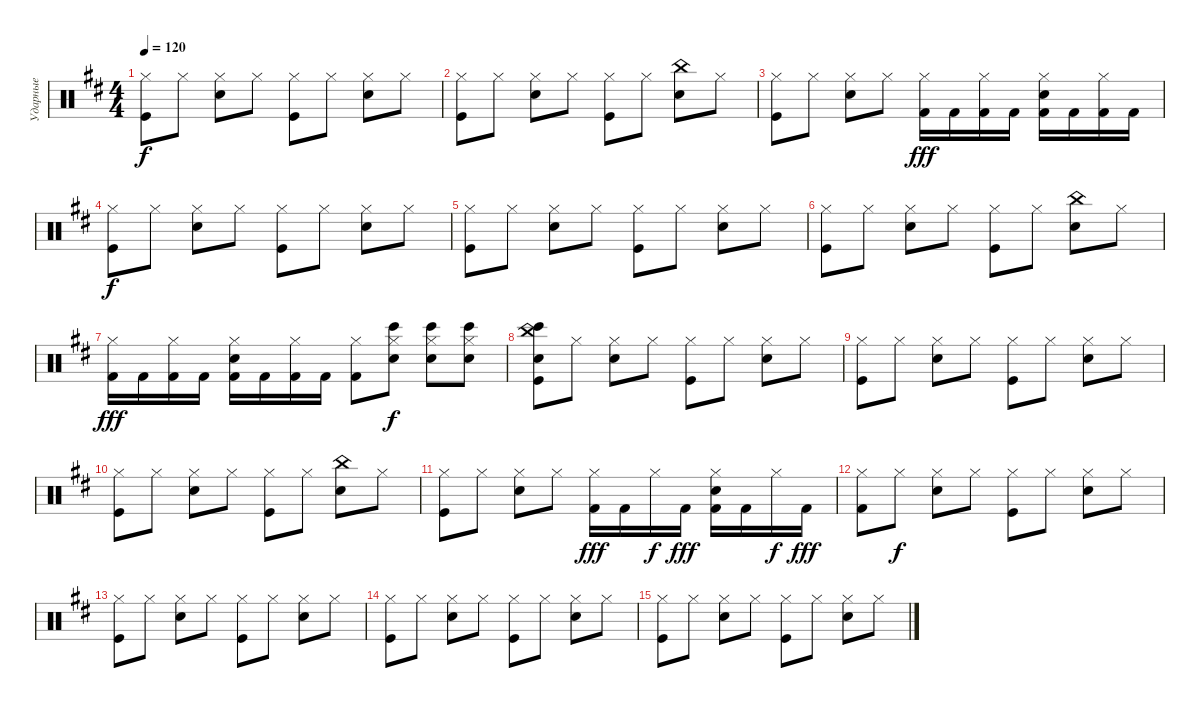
\track ("Ударные" "Ударные") {instrument percussion}
\staff {score}
\articulation defaults
\ts (4 4)
\tempo 120
\clef neutral
\ks bminor
("Hi-Hat (closed)" "Kick (hit)").8{dy f} "Hi-Hat (closed)".8 ("Hi-Hat (closed)" "Snare (hit) 2").8 "Hi-Hat (closed)".8 ("Hi-Hat (closed)" "Kick (hit)").8 "Hi-Hat (closed)".8 ("Hi-Hat (closed)" "Snare (hit) 2").8 "Hi-Hat (closed)".8 |
("Hi-Hat (closed)" "Kick (hit)").8 "Hi-Hat (closed)".8 ("Hi-Hat (closed)" "Snare (hit) 2").8 "Hi-Hat (closed)".8 ("Hi-Hat (closed)" "Kick (hit)").8 "Hi-Hat (closed)".8 ("China (hit)" "Snare (hit) 2").8 "Hi-Hat (closed)".8 |
("Hi-Hat (closed)" "Kick (hit)").8 "Hi-Hat (closed)".8 ("Hi-Hat (closed)" "Snare (hit) 2").8 "Hi-Hat (closed)".8 ("Hi-Hat (closed)" "Kick (hit) 2").16{dy fff} "Kick (hit) 2".16 ("Hi-Hat (closed)" "Kick (hit) 2").16 "Kick (hit) 2".16 ("Hi-Hat (closed)" "Snare (hit) 2" "Kick (hit) 2").16 "Kick (hit) 2".16 ("Hi-Hat (closed)" "Kick (hit) 2").16 "Kick (hit) 2".16 |
("Hi-Hat (closed)" "Kick (hit)").8{dy f} "Hi-Hat (closed)".8 ("Hi-Hat (closed)" "Snare (hit) 2").8 "Hi-Hat (closed)".8 ("Hi-Hat (closed)" "Kick (hit)").8 "Hi-Hat (closed)".8 ("Hi-Hat (closed)" "Snare (hit) 2").8 "Hi-Hat (closed)".8 |
("Hi-Hat (closed)" "Kick (hit)").8 "Hi-Hat (closed)".8 ("Hi-Hat (closed)" "Snare (hit) 2").8 "Hi-Hat (closed)".8 ("Hi-Hat (closed)" "Kick (hit)").8 "Hi-Hat (closed)".8 ("Hi-Hat (closed)" "Snare (hit) 2").8 "Hi-Hat (closed)".8 |
("Hi-Hat (closed)" "Kick (hit)").8 "Hi-Hat (closed)".8 ("Hi-Hat (closed)" "Snare (hit) 2").8 "Hi-Hat (closed)".8 ("Hi-Hat (closed)" "Kick (hit)").8 "Hi-Hat (closed)".8 ("China (hit)" "Snare (hit) 2").8{balance 14} "Hi-Hat (closed)".8{balance 8} |
("Hi-Hat (closed)" "Kick (hit) 2").16{dy fff} "Kick (hit) 2".16 ("Hi-Hat (closed)" "Kick (hit) 2").16 "Kick (hit) 2".16 ("Hi-Hat (closed)" "Snare (hit) 2" "Kick (hit) 2").16 "Kick (hit) 2".16 ("Hi-Hat (closed)" "Kick (hit) 2").16 "Kick (hit) 2".16 ("Hi-Hat (closed)" "Kick (hit) 2").8 ("Hi-Hat (closed)" "Snare (hit) 2" "Bongo High (hit)").8{dy f} ("Hi-Hat (closed)" "Bongo High (hit)" "Snare (hit) 2").8 ("Hi-Hat (closed)" "Snare (hit) 2" "Bongo High (hit)").8 |
\ks d
("China (hit)" "Kick (hit)" "Bongo High (hit)" "Hand Clap (hit)").8 "Hi-Hat (closed)".8 ("Hi-Hat (closed)" "Snare (hit) 2").8 "Hi-Hat (closed)".8 ("Hi-Hat (closed)" "Kick (hit)").8 "Hi-Hat (closed)".8 ("Hi-Hat (closed)" "Snare (hit) 2").8 "Hi-Hat (closed)".8 |
\ks bminor
("Hi-Hat (closed)" "Kick (hit)").8 "Hi-Hat (closed)".8 ("Hi-Hat (closed)" "Snare (hit) 2").8 "Hi-Hat (closed)".8 ("Hi-Hat (closed)" "Kick (hit)").8 "Hi-Hat (closed)".8 ("Hi-Hat (closed)" "Snare (hit) 2").8 "Hi-Hat (closed)".8 |
("Hi-Hat (closed)" "Kick (hit)").8 "Hi-Hat (closed)".8 ("Hi-Hat (closed)" "Snare (hit) 2").8 "Hi-Hat (closed)".8 ("Hi-Hat (closed)" "Kick (hit)").8 "Hi-Hat (closed)".8 ("China (hit)" "Snare (hit) 2").8{balance 14} "Hi-Hat (closed)".8{balance 8} |
("Hi-Hat (closed)" "Kick (hit)").8 "Hi-Hat (closed)".8 ("Hi-Hat (closed)" "Snare (hit) 2").8 "Hi-Hat (closed)".8 ("Hi-Hat (closed)" "Kick (hit) 2").16{dy fff} "Kick (hit) 2".16 "Hi-Hat (closed)".16{dy f} "Kick (hit) 2".16{dy fff} ("Hi-Hat (closed)" "Snare (hit) 2" "Kick (hit) 2").16 "Kick (hit) 2".16 "Hi-Hat (closed)".16{dy f} "Kick (hit) 2".16{dy fff} |
("Hi-Hat (closed)" "Kick (hit) 2").8 "Hi-Hat (closed)".8{dy f} ("Hi-Hat (closed)" "Snare (hit) 2").8 "Hi-Hat (closed)".8 ("Hi-Hat (closed)" "Kick (hit)").8 "Hi-Hat (closed)".8 ("Hi-Hat (closed)" "Snare (hit) 2").8 "Hi-Hat (closed)".8 |
("Hi-Hat (closed)" "Kick (hit)").8 "Hi-Hat (closed)".8 ("Hi-Hat (closed)" "Snare (hit) 2").8 "Hi-Hat (closed)".8 ("Hi-Hat (closed)" "Kick (hit)").8 "Hi-Hat (closed)".8 ("Hi-Hat (closed)" "Snare (hit) 2").8 "Hi-Hat (closed)".8 |
("Hi-Hat (closed)" "Kick (hit)").8 "Hi-Hat (closed)".8 ("Hi-Hat (closed)" "Snare (hit) 2").8 "Hi-Hat (closed)".8 ("Hi-Hat (closed)" "Kick (hit)").8 "Hi-Hat (closed)".8 ("Hi-Hat (closed)" "Snare (hit) 2").8 "Hi-Hat (closed)".8 |
("Hi-Hat (closed)" "Kick (hit)").8 "Hi-Hat (closed)".8 ("Hi-Hat (closed)" "Snare (hit) 2").8 "Hi-Hat (closed)".8 ("Hi-Hat (closed)" "Kick (hit)").8 "Hi-Hat (closed)".8 ("Hi-Hat (closed)" "Snare (hit) 2").8 "Hi-Hat (closed)".8
